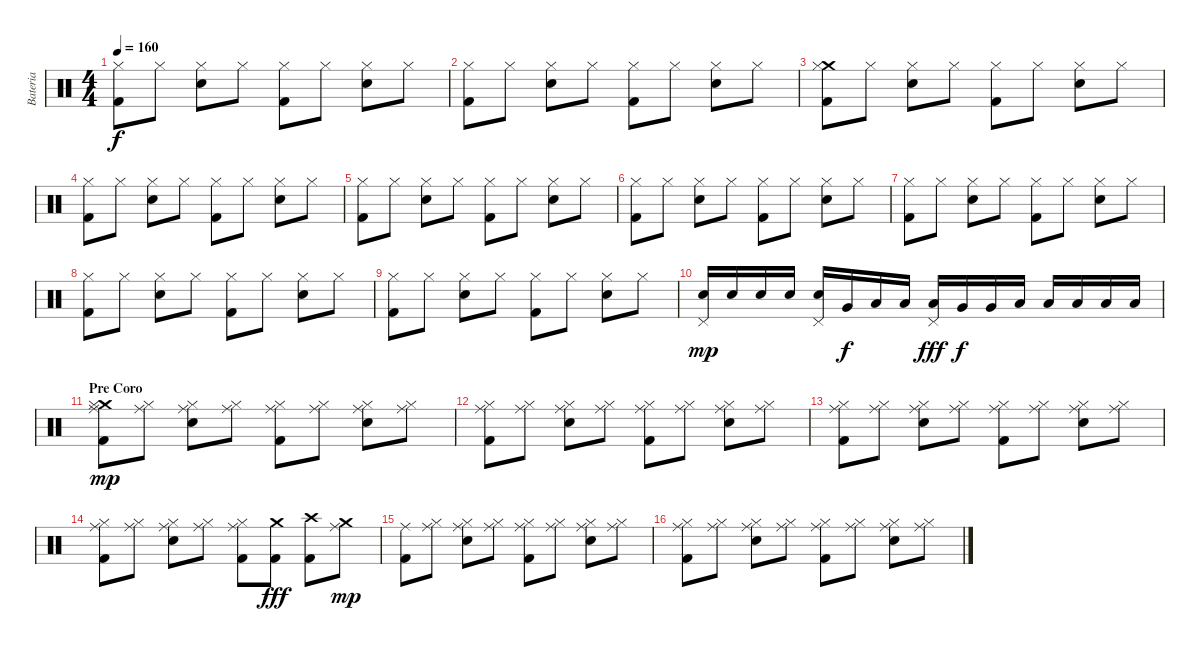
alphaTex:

\track ("Bateria" "Bateria") {instrument percussion}
\staff {score}
\articulation defaults
\ts (4 4)
\tempo 160
\clef neutral
\ks c
("Hi-Hat (closed)" "Kick (hit) 2").8{dy f} "Hi-Hat (closed)".8 ("Hi-Hat (closed)" "Electric Snare (hit)").8 "Hi-Hat (closed)".8 ("Hi-Hat (closed)" "Kick (hit) 2").8 "Hi-Hat (closed)".8 ("Hi-Hat (closed)" "Electric Snare (hit)").8 "Hi-Hat (closed)".8 |
("Hi-Hat (closed)" "Kick (hit) 2").8 "Hi-Hat (closed)".8 ("Hi-Hat (closed)" "Electric Snare (hit)").8 "Hi-Hat (closed)".8 ("Hi-Hat (closed)" "Kick (hit) 2").8 "Hi-Hat (closed)".8 ("Hi-Hat (closed)" "Electric Snare (hit)").8 "Hi-Hat (closed)".8 |
("Crash medium (hit)" "Hi-Hat (closed)" "Kick (hit) 2").8 "Hi-Hat (closed)".8 ("Hi-Hat (closed)" "Electric Snare (hit)").8 "Hi-Hat (closed)".8 ("Hi-Hat (closed)" "Kick (hit) 2").8 "Hi-Hat (closed)".8 ("Hi-Hat (closed)" "Electric Snare (hit)").8 "Hi-Hat (closed)".8 |
("Hi-Hat (closed)" "Kick (hit) 2").8 "Hi-Hat (closed)".8 ("Hi-Hat (closed)" "Electric Snare (hit)").8 "Hi-Hat (closed)".8 ("Hi-Hat (closed)" "Kick (hit) 2").8 "Hi-Hat (closed)".8 ("Hi-Hat (closed)" "Electric Snare (hit)").8 "Hi-Hat (closed)".8 |
("Hi-Hat (closed)" "Kick (hit) 2").8 "Hi-Hat (closed)".8 ("Hi-Hat (closed)" "Electric Snare (hit)").8 "Hi-Hat (closed)".8 ("Hi-Hat (closed)" "Kick (hit) 2").8 "Hi-Hat (closed)".8 ("Hi-Hat (closed)" "Electric Snare (hit)").8 "Hi-Hat (closed)".8 |
("Hi-Hat (closed)" "Kick (hit) 2").8 "Hi-Hat (closed)".8 ("Hi-Hat (closed)" "Electric Snare (hit)").8 "Hi-Hat (closed)".8 ("Hi-Hat (closed)" "Kick (hit) 2").8 "Hi-Hat (closed)".8 ("Hi-Hat (closed)" "Electric Snare (hit)").8 "Hi-Hat (closed)".8 |
("Hi-Hat (closed)" "Kick (hit) 2").8 "Hi-Hat (closed)".8 ("Hi-Hat (closed)" "Electric Snare (hit)").8 "Hi-Hat (closed)".8 ("Hi-Hat (closed)" "Kick (hit) 2").8 "Hi-Hat (closed)".8 ("Hi-Hat (closed)" "Electric Snare (hit)").8 "Hi-Hat (closed)".8 |
("Hi-Hat (closed)" "Kick (hit) 2").8 "Hi-Hat (closed)".8 ("Hi-Hat (closed)" "Electric Snare (hit)").8 "Hi-Hat (closed)".8 ("Hi-Hat (closed)" "Kick (hit) 2").8 "Hi-Hat (closed)".8 ("Hi-Hat (closed)" "Electric Snare (hit)").8 "Hi-Hat (closed)".8 |
("Hi-Hat (closed)" "Kick (hit) 2").8 "Hi-Hat (closed)".8 ("Hi-Hat (closed)" "Electric Snare (hit)").8 "Hi-Hat (closed)".8 ("Hi-Hat (closed)" "Kick (hit) 2").8 "Hi-Hat (closed)".8 ("Hi-Hat (closed)" "Electric Snare (hit)").8 "Hi-Hat (closed)".8 |
("Pedal Hi-Hat (hit)" "Electric Snare (hit)").16{dy mp} "Electric Snare (hit)".16 "Electric Snare (hit)".16 "Electric Snare (hit)".16 ("Pedal Hi-Hat (hit)" "Electric Snare (hit)").16 "Very Low Tom (hit)".16{dy f} "Low Tom (hit)".16 "Low Tom (hit)".16 ("Pedal Hi-Hat (hit)" "Low Tom (hit)").16{dy fff} "Very Low Tom (hit)".16{dy f} "Very Low Tom (hit)".16 "Low Floor Tom (hit)".16 "Low Floor Tom (hit)".16 "Low Floor Tom (hit)".16 "Low Floor Tom (hit)".16 "Low Floor Tom (hit)".16 |
\section ("" "Pre Coro")
("Crash medium (hit)" "Hi-Hat (closed)" "Kick (hit) 2" "Ride (middle)").8{dy mp} ("Hi-Hat (closed)" "Ride (middle)").8 ("Hi-Hat (closed)" "Electric Snare (hit)" "Ride (middle)").8 ("Hi-Hat (closed)" "Ride (middle)").8 ("Hi-Hat (closed)" "Kick (hit) 2" "Ride (middle)").8 ("Hi-Hat (closed)" "Ride (middle)").8 ("Hi-Hat (closed)" "Electric Snare (hit)" "Ride (middle)").8 ("Hi-Hat (closed)" "Ride (middle)").8 |
("Hi-Hat (closed)" "Kick (hit) 2" "Ride (middle)").8 ("Hi-Hat (closed)" "Ride (middle)").8 ("Hi-Hat (closed)" "Electric Snare (hit)" "Ride (middle)").8 ("Hi-Hat (closed)" "Ride (middle)").8 ("Hi-Hat (closed)" "Kick (hit) 2" "Ride (middle)").8 ("Hi-Hat (closed)" "Ride (middle)").8 ("Hi-Hat (closed)" "Electric Snare (hit)" "Ride (middle)").8 ("Hi-Hat (closed)" "Ride (middle)").8 |
("Hi-Hat (closed)" "Kick (hit) 2" "Ride (middle)").8 ("Hi-Hat (closed)" "Ride (middle)").8 ("Hi-Hat (closed)" "Electric Snare (hit)" "Ride (middle)").8 ("Hi-Hat (closed)" "Ride (middle)").8 ("Hi-Hat (closed)" "Kick (hit) 2" "Ride (middle)").8 ("Hi-Hat (closed)" "Ride (middle)").8 ("Hi-Hat (closed)" "Electric Snare (hit)" "Ride (middle)").8 ("Hi-Hat (closed)" "Ride (middle)").8 |
("Hi-Hat (closed)" "Kick (hit) 2" "Ride (middle)").8 ("Hi-Hat (closed)" "Ride (middle)").8 ("Hi-Hat (closed)" "Electric Snare (hit)" "Ride (middle)").8 ("Hi-Hat (closed)" "Ride (middle)").8 ("Hi-Hat (closed)" "Kick (hit) 2" "Ride (middle)").8 ("Crash medium (hit)" "Kick (hit) 2").8{dy fff} ("Crash high (hit)" "Kick (hit) 2").8 ("Crash medium (hit)" "Ride (middle)").8{dy mp} |
("Kick (hit) 2" "Ride (middle)").8 ("Hi-Hat (closed)" "Ride (middle)").8 ("Hi-Hat (closed)" "Electric Snare (hit)" "Ride (middle)").8 ("Hi-Hat (closed)" "Ride (middle)").8 ("Hi-Hat (closed)" "Kick (hit) 2" "Ride (middle)").8 ("Hi-Hat (closed)" "Ride (middle)").8 ("Hi-Hat (closed)" "Electric Snare (hit)" "Ride (middle)").8 ("Hi-Hat (closed)" "Ride (middle)").8 |
("Hi-Hat (closed)" "Kick (hit) 2" "Ride (middle)").8 ("Hi-Hat (closed)" "Ride (middle)").8 ("Hi-Hat (closed)" "Electric Snare (hit)" "Ride (middle)").8 ("Hi-Hat (closed)" "Ride (middle)").8 ("Hi-Hat (closed)" "Kick (hit) 2" "Ride (middle)").8 ("Hi-Hat (closed)" "Ride (middle)").8 ("Hi-Hat (closed)" "Electric Snare (hit)" "Ride (middle)").8 ("Hi-Hat (closed)" "Ride (middle)").8
